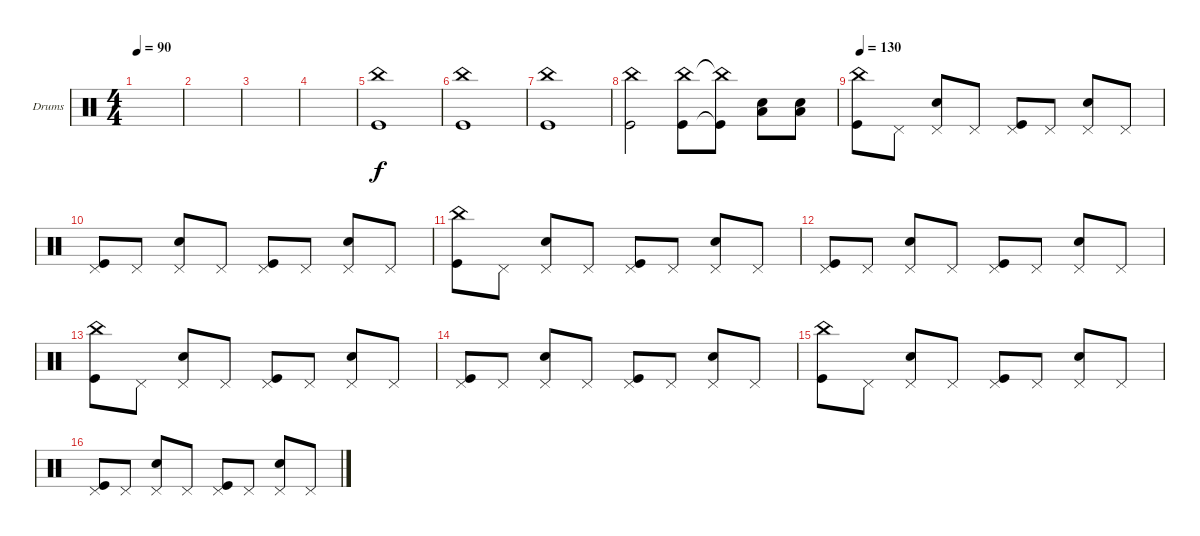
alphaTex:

\defaultSystemsLayout 4
\bracketExtendMode groupsimilarinstruments
\firstSystemTrackNameOrientation horizontal
\otherSystemsTrackNameOrientation horizontal
\track ("Drumkit" "Drums") {instrument percussion}
\staff {score}
\articulation defaults
\ts (4 4)
\tempo 90
\clef neutral
\scale
0.474178
\ks c
|
\scale
0.262911 |
\scale
0.262911 |
\scale
0.333333 |
\scale
0.333333 ("Kick (hit)" "China (hit)").1 |
\scale
0.333333 ("Kick (hit)" "China (hit)").1 |
\scale
0.333333 ("Kick (hit)" "China (hit)").1 |
\scale
0.333333 ("Kick (hit)" "China (hit)").2 ("China (hit)" "Kick (hit)").8 ("China (hit)"{t} "Kick (hit)"{t}).8 ("Snare (hit) 2" "Low Tom (hit)").8 ("Low Tom (hit)" "Snare (hit) 2").8 |
\tempo 130
\scale
0.333333 ("Kick (hit)" "China (hit)").8 "Pedal Hi-Hat (hit)".8 ("Snare (hit) 2" "Pedal Hi-Hat (hit)").8 "Pedal Hi-Hat (hit)".8 ("Kick (hit)" "Pedal Hi-Hat (hit)").8 "Pedal Hi-Hat (hit)".8 ("Snare (hit) 2" "Pedal Hi-Hat (hit)").8 "Pedal Hi-Hat (hit)".8 |
\scale
0.333333 ("Kick (hit)" "Pedal Hi-Hat (hit)").8 "Pedal Hi-Hat (hit)".8 ("Snare (hit) 2" "Pedal Hi-Hat (hit)").8 "Pedal Hi-Hat (hit)".8 ("Kick (hit)" "Pedal Hi-Hat (hit)").8 "Pedal Hi-Hat (hit)".8 ("Snare (hit) 2" "Pedal Hi-Hat (hit)").8 "Pedal Hi-Hat (hit)".8 |
\scale
0.333333 ("Kick (hit)" "China (hit)").8 "Pedal Hi-Hat (hit)".8 ("Snare (hit) 2" "Pedal Hi-Hat (hit)").8 "Pedal Hi-Hat (hit)".8 ("Kick (hit)" "Pedal Hi-Hat (hit)").8 "Pedal Hi-Hat (hit)".8 ("Snare (hit) 2" "Pedal Hi-Hat (hit)").8 "Pedal Hi-Hat (hit)".8 |
\scale
0.333333 ("Kick (hit)" "Pedal Hi-Hat (hit)").8 "Pedal Hi-Hat (hit)".8 ("Snare (hit) 2" "Pedal Hi-Hat (hit)").8 "Pedal Hi-Hat (hit)".8 ("Kick (hit)" "Pedal Hi-Hat (hit)").8 "Pedal Hi-Hat (hit)".8 ("Snare (hit) 2" "Pedal Hi-Hat (hit)").8 "Pedal Hi-Hat (hit)".8 |
\scale
0.333333 ("Kick (hit)" "China (hit)").8 "Pedal Hi-Hat (hit)".8 ("Snare (hit) 2" "Pedal Hi-Hat (hit)").8 "Pedal Hi-Hat (hit)".8 ("Kick (hit)" "Pedal Hi-Hat (hit)").8 "Pedal Hi-Hat (hit)".8 ("Snare (hit) 2" "Pedal Hi-Hat (hit)").8 "Pedal Hi-Hat (hit)".8 |
\scale
0.333333 ("Kick (hit)" "Pedal Hi-Hat (hit)").8 "Pedal Hi-Hat (hit)".8 ("Snare (hit) 2" "Pedal Hi-Hat (hit)").8 "Pedal Hi-Hat (hit)".8 ("Kick (hit)" "Pedal Hi-Hat (hit)").8 "Pedal Hi-Hat (hit)".8 ("Snare (hit) 2" "Pedal Hi-Hat (hit)").8 "Pedal Hi-Hat (hit)".8 |
\scale
0.333333 ("Kick (hit)" "China (hit)").8 "Pedal Hi-Hat (hit)".8 ("Snare (hit) 2" "Pedal Hi-Hat (hit)").8 "Pedal Hi-Hat (hit)".8 ("Kick (hit)" "Pedal Hi-Hat (hit)").8 "Pedal Hi-Hat (hit)".8 ("Snare (hit) 2" "Pedal Hi-Hat (hit)").8 "Pedal Hi-Hat (hit)".8 |
\scale
0.333333 ("Kick (hit)" "Pedal Hi-Hat (hit)").8 "Pedal Hi-Hat (hit)".8 ("Snare (hit) 2" "Pedal Hi-Hat (hit)").8 "Pedal Hi-Hat (hit)".8 ("Kick (hit)" "Pedal Hi-Hat (hit)").8 "Pedal Hi-Hat (hit)".8 ("Snare (hit) 2" "Pedal Hi-Hat (hit)").8 "Pedal Hi-Hat (hit)".8
